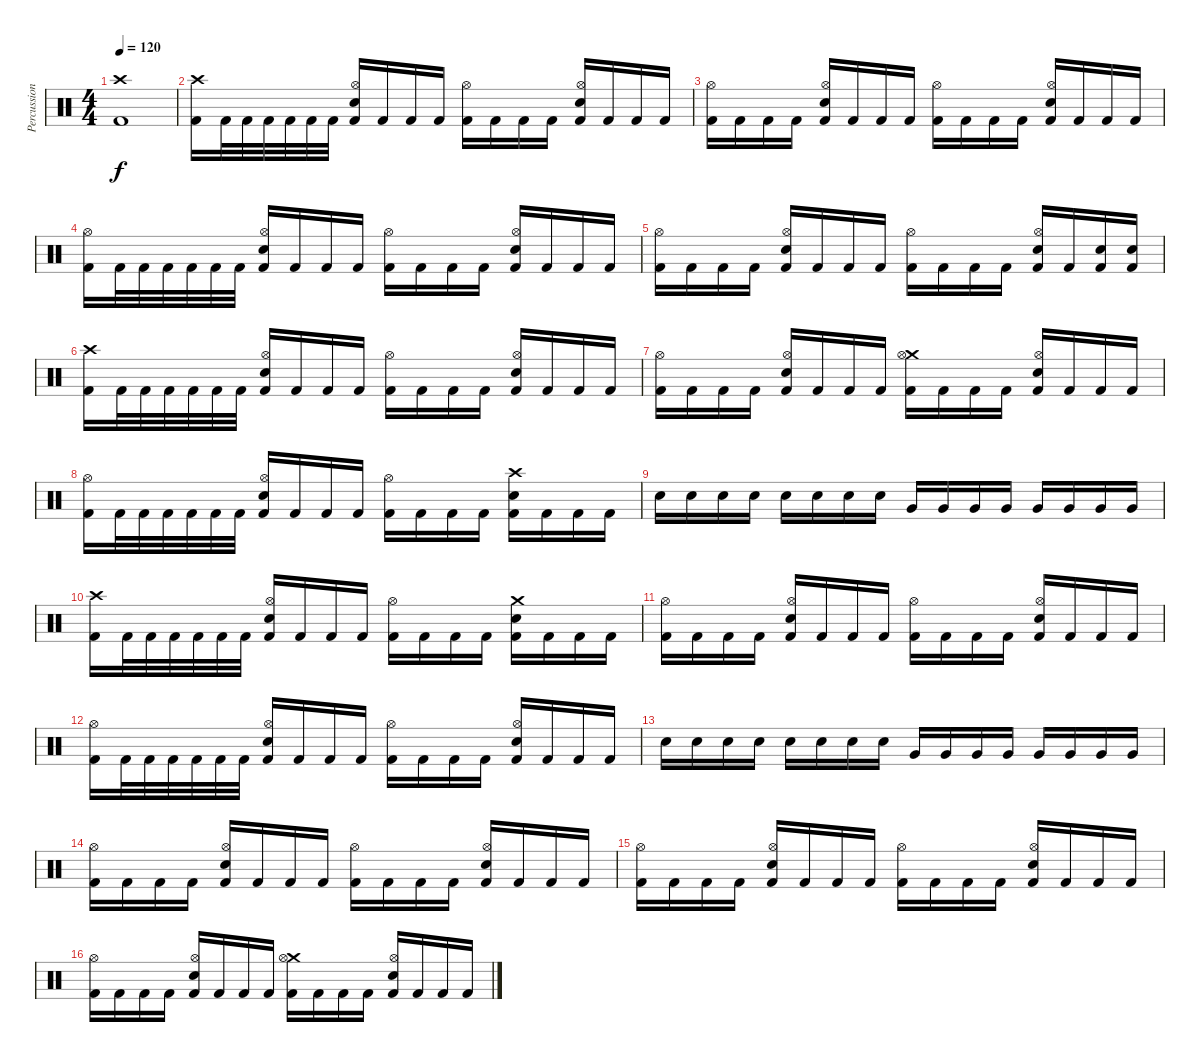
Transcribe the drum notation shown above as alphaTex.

\track ("Percussion" "Percussion") {instrument percussion}
\staff {score}
\articulation defaults
\ts (4 4)
\tempo 120
\clef neutral
\ks c
("Crash high (hit)" "Kick (hit) 2").1{dy f} |
("Crash high (hit)" "Kick (hit) 2").16 "Kick (hit) 2".32 "Kick (hit) 2".32 "Kick (hit) 2".32 "Kick (hit) 2".32 "Kick (hit) 2".32 "Kick (hit) 2".32 ("Hi-Hat (open)" "Snare (hit) 2" "Kick (hit) 2").16 "Kick (hit) 2".16 "Kick (hit) 2".16 "Kick (hit) 2".16 ("Hi-Hat (open)" "Kick (hit) 2").16 "Kick (hit) 2".16 "Kick (hit) 2".16 "Kick (hit) 2".16 ("Hi-Hat (open)" "Snare (hit) 2" "Kick (hit) 2").16 "Kick (hit) 2".16 "Kick (hit) 2".16 "Kick (hit) 2".16 |
("Hi-Hat (open)" "Kick (hit) 2").16 "Kick (hit) 2".16 "Kick (hit) 2".16 "Kick (hit) 2".16 ("Hi-Hat (open)" "Snare (hit) 2" "Kick (hit) 2").16 "Kick (hit) 2".16 "Kick (hit) 2".16 "Kick (hit) 2".16 ("Hi-Hat (open)" "Kick (hit) 2").16 "Kick (hit) 2".16 "Kick (hit) 2".16 "Kick (hit) 2".16 ("Hi-Hat (open)" "Snare (hit) 2" "Kick (hit) 2").16 "Kick (hit) 2".16 "Kick (hit) 2".16 "Kick (hit) 2".16 |
("Hi-Hat (open)" "Kick (hit) 2").16 "Kick (hit) 2".32 "Kick (hit) 2".32 "Kick (hit) 2".32 "Kick (hit) 2".32 "Kick (hit) 2".32 "Kick (hit) 2".32 ("Hi-Hat (open)" "Snare (hit) 2" "Kick (hit) 2").16 "Kick (hit) 2".16 "Kick (hit) 2".16 "Kick (hit) 2".16 ("Hi-Hat (open)" "Kick (hit) 2").16 "Kick (hit) 2".16 "Kick (hit) 2".16 "Kick (hit) 2".16 ("Hi-Hat (open)" "Snare (hit) 2" "Kick (hit) 2").16 "Kick (hit) 2".16 "Kick (hit) 2".16 "Kick (hit) 2".16 |
("Hi-Hat (open)" "Kick (hit) 2").16 "Kick (hit) 2".16 "Kick (hit) 2".16 "Kick (hit) 2".16 ("Hi-Hat (open)" "Snare (hit) 2" "Kick (hit) 2").16 "Kick (hit) 2".16 "Kick (hit) 2".16 "Kick (hit) 2".16 ("Hi-Hat (open)" "Kick (hit) 2").16 "Kick (hit) 2".16 "Kick (hit) 2".16 "Kick (hit) 2".16 ("Hi-Hat (open)" "Snare (hit) 2" "Kick (hit) 2").16 "Kick (hit) 2".16 ("Snare (hit) 2" "Kick (hit) 2").16 ("Snare (hit) 2" "Kick (hit) 2").16 |
("Crash high (hit)" "Kick (hit) 2").16 "Kick (hit) 2".32 "Kick (hit) 2".32 "Kick (hit) 2".32 "Kick (hit) 2".32 "Kick (hit) 2".32 "Kick (hit) 2".32 ("Hi-Hat (open)" "Snare (hit) 2" "Kick (hit) 2").16 "Kick (hit) 2".16 "Kick (hit) 2".16 "Kick (hit) 2".16 ("Hi-Hat (open)" "Kick (hit) 2").16 "Kick (hit) 2".16 "Kick (hit) 2".16 "Kick (hit) 2".16 ("Hi-Hat (open)" "Snare (hit) 2" "Kick (hit) 2").16 "Kick (hit) 2".16 "Kick (hit) 2".16 "Kick (hit) 2".16 |
("Hi-Hat (open)" "Kick (hit) 2").16 "Kick (hit) 2".16 "Kick (hit) 2".16 "Kick (hit) 2".16 ("Hi-Hat (open)" "Snare (hit) 2" "Kick (hit) 2").16 "Kick (hit) 2".16 "Kick (hit) 2".16 "Kick (hit) 2".16 ("Crash medium (hit)" "Hi-Hat (open)" "Kick (hit) 2").16 "Kick (hit) 2".16 "Kick (hit) 2".16 "Kick (hit) 2".16 ("Hi-Hat (open)" "Snare (hit) 2" "Kick (hit) 2").16 "Kick (hit) 2".16 "Kick (hit) 2".16 "Kick (hit) 2".16 |
("Hi-Hat (open)" "Kick (hit) 2").16 "Kick (hit) 2".32 "Kick (hit) 2".32 "Kick (hit) 2".32 "Kick (hit) 2".32 "Kick (hit) 2".32 "Kick (hit) 2".32 ("Hi-Hat (open)" "Snare (hit) 2" "Kick (hit) 2").16 "Kick (hit) 2".16 "Kick (hit) 2".16 "Kick (hit) 2".16 ("Hi-Hat (open)" "Kick (hit) 2").16 "Kick (hit) 2".16 "Kick (hit) 2".16 "Kick (hit) 2".16 ("Crash high (hit)" "Snare (hit) 2" "Kick (hit) 2").16 "Kick (hit) 2".16 "Kick (hit) 2".16 "Kick (hit) 2".16 |
"Snare (hit) 2".16 "Snare (hit) 2".16 "Snare (hit) 2".16 "Snare (hit) 2".16 "Snare (hit) 2".16 "Snare (hit) 2".16 "Snare (hit) 2".16 "Snare (hit) 2".16 "Very Low Tom (hit)".16 "Very Low Tom (hit)".16 "Very Low Tom (hit)".16 "Very Low Tom (hit)".16 "Very Low Tom (hit)".16 "Very Low Tom (hit)".16 "Very Low Tom (hit)".16 "Very Low Tom (hit)".16 |
("Crash high (hit)" "Kick (hit) 2").16 "Kick (hit) 2".32 "Kick (hit) 2".32 "Kick (hit) 2".32 "Kick (hit) 2".32 "Kick (hit) 2".32 "Kick (hit) 2".32 ("Hi-Hat (open)" "Snare (hit) 2" "Kick (hit) 2").16 "Kick (hit) 2".16 "Kick (hit) 2".16 "Kick (hit) 2".16 ("Hi-Hat (open)" "Kick (hit) 2").16 "Kick (hit) 2".16 "Kick (hit) 2".16 "Kick (hit) 2".16 ("Crash medium (hit)" "Snare (hit) 2" "Kick (hit) 2").16 "Kick (hit) 2".16 "Kick (hit) 2".16 "Kick (hit) 2".16 |
("Hi-Hat (open)" "Kick (hit) 2").16 "Kick (hit) 2".16 "Kick (hit) 2".16 "Kick (hit) 2".16 ("Hi-Hat (open)" "Snare (hit) 2" "Kick (hit) 2").16 "Kick (hit) 2".16 "Kick (hit) 2".16 "Kick (hit) 2".16 ("Hi-Hat (open)" "Kick (hit) 2").16 "Kick (hit) 2".16 "Kick (hit) 2".16 "Kick (hit) 2".16 ("Hi-Hat (open)" "Snare (hit) 2" "Kick (hit) 2").16 "Kick (hit) 2".16 "Kick (hit) 2".16 "Kick (hit) 2".16 |
("Hi-Hat (open)" "Kick (hit) 2").16 "Kick (hit) 2".32 "Kick (hit) 2".32 "Kick (hit) 2".32 "Kick (hit) 2".32 "Kick (hit) 2".32 "Kick (hit) 2".32 ("Hi-Hat (open)" "Snare (hit) 2" "Kick (hit) 2").16 "Kick (hit) 2".16 "Kick (hit) 2".16 "Kick (hit) 2".16 ("Hi-Hat (open)" "Kick (hit) 2").16 "Kick (hit) 2".16 "Kick (hit) 2".16 "Kick (hit) 2".16 ("Hi-Hat (open)" "Snare (hit) 2" "Kick (hit) 2").16 "Kick (hit) 2".16 "Kick (hit) 2".16 "Kick (hit) 2".16 |
"Snare (hit) 2".16 "Snare (hit) 2".16 "Snare (hit) 2".16 "Snare (hit) 2".16 "Snare (hit) 2".16 "Snare (hit) 2".16 "Snare (hit) 2".16 "Snare (hit) 2".16 "Very Low Tom (hit)".16 "Very Low Tom (hit)".16 "Very Low Tom (hit)".16 "Very Low Tom (hit)".16 "Very Low Tom (hit)".16 "Very Low Tom (hit)".16 "Very Low Tom (hit)".16 "Very Low Tom (hit)".16 |
("Hi-Hat (open)" "Kick (hit) 2").16 "Kick (hit) 2".16 "Kick (hit) 2".16 "Kick (hit) 2".16 ("Hi-Hat (open)" "Snare (hit) 2" "Kick (hit) 2").16 "Kick (hit) 2".16 "Kick (hit) 2".16 "Kick (hit) 2".16 ("Hi-Hat (open)" "Kick (hit) 2").16 "Kick (hit) 2".16 "Kick (hit) 2".16 "Kick (hit) 2".16 ("Hi-Hat (open)" "Snare (hit) 2" "Kick (hit) 2").16 "Kick (hit) 2".16 "Kick (hit) 2".16 "Kick (hit) 2".16 |
("Hi-Hat (open)" "Kick (hit) 2").16 "Kick (hit) 2".16 "Kick (hit) 2".16 "Kick (hit) 2".16 ("Hi-Hat (open)" "Snare (hit) 2" "Kick (hit) 2").16 "Kick (hit) 2".16 "Kick (hit) 2".16 "Kick (hit) 2".16 ("Hi-Hat (open)" "Kick (hit) 2").16 "Kick (hit) 2".16 "Kick (hit) 2".16 "Kick (hit) 2".16 ("Hi-Hat (open)" "Snare (hit) 2" "Kick (hit) 2").16 "Kick (hit) 2".16 "Kick (hit) 2".16 "Kick (hit) 2".16 |
("Hi-Hat (open)" "Kick (hit) 2").16 "Kick (hit) 2".16 "Kick (hit) 2".16 "Kick (hit) 2".16 ("Hi-Hat (open)" "Snare (hit) 2" "Kick (hit) 2").16 "Kick (hit) 2".16 "Kick (hit) 2".16 "Kick (hit) 2".16 ("Crash medium (hit)" "Hi-Hat (open)" "Kick (hit) 2").16 "Kick (hit) 2".16 "Kick (hit) 2".16 "Kick (hit) 2".16 ("Hi-Hat (open)" "Snare (hit) 2" "Kick (hit) 2").16 "Kick (hit) 2".16 "Kick (hit) 2".16 "Kick (hit) 2".16
